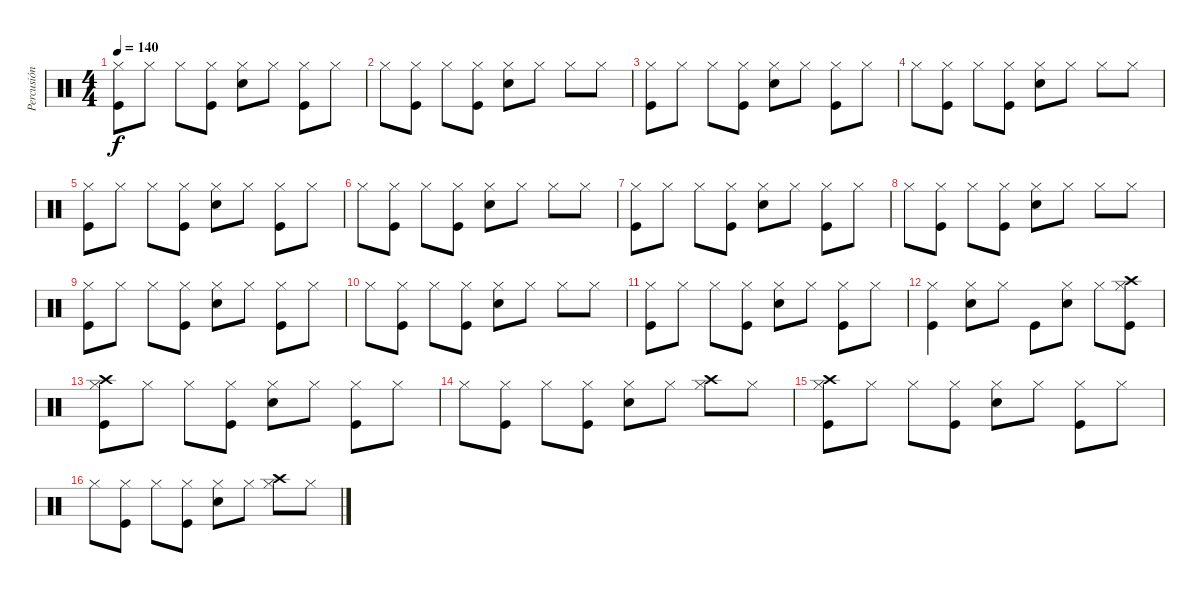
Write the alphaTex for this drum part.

\track ("Percusión" "Percusión") {instrument percussion}
\staff {score}
\articulation defaults
\ts (4 4)
\tempo 140
\clef neutral
\ks c
("Hi-Hat (closed)" "Kick (hit)").8{dy f} "Hi-Hat (closed)".8 "Hi-Hat (closed)".8 ("Hi-Hat (closed)" "Kick (hit)").8 ("Hi-Hat (closed)" "Electric Snare (hit)").8 "Hi-Hat (closed)".8 ("Hi-Hat (closed)" "Kick (hit)").8 "Hi-Hat (closed)".8 |
"Hi-Hat (closed)".8 ("Hi-Hat (closed)" "Kick (hit)").8 "Hi-Hat (closed)".8 ("Hi-Hat (closed)" "Kick (hit)").8 ("Hi-Hat (closed)" "Electric Snare (hit)").8 "Hi-Hat (closed)".8 "Hi-Hat (closed)".8 "Hi-Hat (closed)".8 |
("Hi-Hat (closed)" "Kick (hit)").8 "Hi-Hat (closed)".8 "Hi-Hat (closed)".8 ("Hi-Hat (closed)" "Kick (hit)").8 ("Hi-Hat (closed)" "Electric Snare (hit)").8 "Hi-Hat (closed)".8 ("Hi-Hat (closed)" "Kick (hit)").8 "Hi-Hat (closed)".8 |
"Hi-Hat (closed)".8 ("Hi-Hat (closed)" "Kick (hit)").8 "Hi-Hat (closed)".8 ("Hi-Hat (closed)" "Kick (hit)").8 ("Hi-Hat (closed)" "Electric Snare (hit)").8 "Hi-Hat (closed)".8 "Hi-Hat (closed)".8 "Hi-Hat (closed)".8 |
("Hi-Hat (closed)" "Kick (hit)").8 "Hi-Hat (closed)".8 "Hi-Hat (closed)".8 ("Hi-Hat (closed)" "Kick (hit)").8 ("Hi-Hat (closed)" "Electric Snare (hit)").8 "Hi-Hat (closed)".8 ("Hi-Hat (closed)" "Kick (hit)").8 "Hi-Hat (closed)".8 |
"Hi-Hat (closed)".8 ("Hi-Hat (closed)" "Kick (hit)").8 "Hi-Hat (closed)".8 ("Hi-Hat (closed)" "Kick (hit)").8 ("Hi-Hat (closed)" "Electric Snare (hit)").8 "Hi-Hat (closed)".8 "Hi-Hat (closed)".8 "Hi-Hat (closed)".8 |
("Hi-Hat (closed)" "Kick (hit)").8 "Hi-Hat (closed)".8 "Hi-Hat (closed)".8 ("Hi-Hat (closed)" "Kick (hit)").8 ("Hi-Hat (closed)" "Electric Snare (hit)").8 "Hi-Hat (closed)".8 ("Hi-Hat (closed)" "Kick (hit)").8 "Hi-Hat (closed)".8 |
"Hi-Hat (closed)".8 ("Hi-Hat (closed)" "Kick (hit)").8 "Hi-Hat (closed)".8 ("Hi-Hat (closed)" "Kick (hit)").8 ("Hi-Hat (closed)" "Electric Snare (hit)").8 "Hi-Hat (closed)".8 "Hi-Hat (closed)".8 "Hi-Hat (closed)".8 |
("Hi-Hat (closed)" "Kick (hit)").8 "Hi-Hat (closed)".8 "Hi-Hat (closed)".8 ("Hi-Hat (closed)" "Kick (hit)").8 ("Hi-Hat (closed)" "Electric Snare (hit)").8 "Hi-Hat (closed)".8 ("Hi-Hat (closed)" "Kick (hit)").8 "Hi-Hat (closed)".8 |
"Hi-Hat (closed)".8 ("Hi-Hat (closed)" "Kick (hit)").8 "Hi-Hat (closed)".8 ("Hi-Hat (closed)" "Kick (hit)").8 ("Hi-Hat (closed)" "Electric Snare (hit)").8 "Hi-Hat (closed)".8 "Hi-Hat (closed)".8 "Hi-Hat (closed)".8 |
("Hi-Hat (closed)" "Kick (hit)").8 "Hi-Hat (closed)".8 "Hi-Hat (closed)".8 ("Hi-Hat (closed)" "Kick (hit)").8 ("Hi-Hat (closed)" "Electric Snare (hit)").8 "Hi-Hat (closed)".8 ("Hi-Hat (closed)" "Kick (hit)").8 "Hi-Hat (closed)".8 |
("Hi-Hat (closed)" "Kick (hit)").4 ("Electric Snare (hit)" "Hi-Hat (closed)").8 "Hi-Hat (closed)".8 "Kick (hit)".8 ("Hi-Hat (closed)" "Electric Snare (hit)").8 "Hi-Hat (closed)".8 ("Crash high (hit)" "Hi-Hat (closed)" "Kick (hit)").8 |
("Crash high (hit)" "Hi-Hat (closed)" "Kick (hit)").8 "Hi-Hat (closed)".8 "Hi-Hat (closed)".8 ("Hi-Hat (closed)" "Kick (hit)").8 ("Hi-Hat (closed)" "Electric Snare (hit)").8 "Hi-Hat (closed)".8 ("Hi-Hat (closed)" "Kick (hit)").8 "Hi-Hat (closed)".8 |
"Hi-Hat (closed)".8 ("Hi-Hat (closed)" "Kick (hit)").8 "Hi-Hat (closed)".8 ("Hi-Hat (closed)" "Kick (hit)").8 ("Hi-Hat (closed)" "Electric Snare (hit)").8 "Hi-Hat (closed)".8 ("Crash high (hit)" "Hi-Hat (closed)").8 "Hi-Hat (closed)".8 |
("Crash high (hit)" "Hi-Hat (closed)" "Kick (hit)").8 "Hi-Hat (closed)".8 "Hi-Hat (closed)".8 ("Hi-Hat (closed)" "Kick (hit)").8 ("Hi-Hat (closed)" "Electric Snare (hit)").8 "Hi-Hat (closed)".8 ("Hi-Hat (closed)" "Kick (hit)").8 "Hi-Hat (closed)".8 |
"Hi-Hat (closed)".8 ("Hi-Hat (closed)" "Kick (hit)").8 "Hi-Hat (closed)".8 ("Hi-Hat (closed)" "Kick (hit)").8 ("Hi-Hat (closed)" "Electric Snare (hit)").8 "Hi-Hat (closed)".8 ("Crash high (hit)" "Hi-Hat (closed)").8 "Hi-Hat (closed)".8
